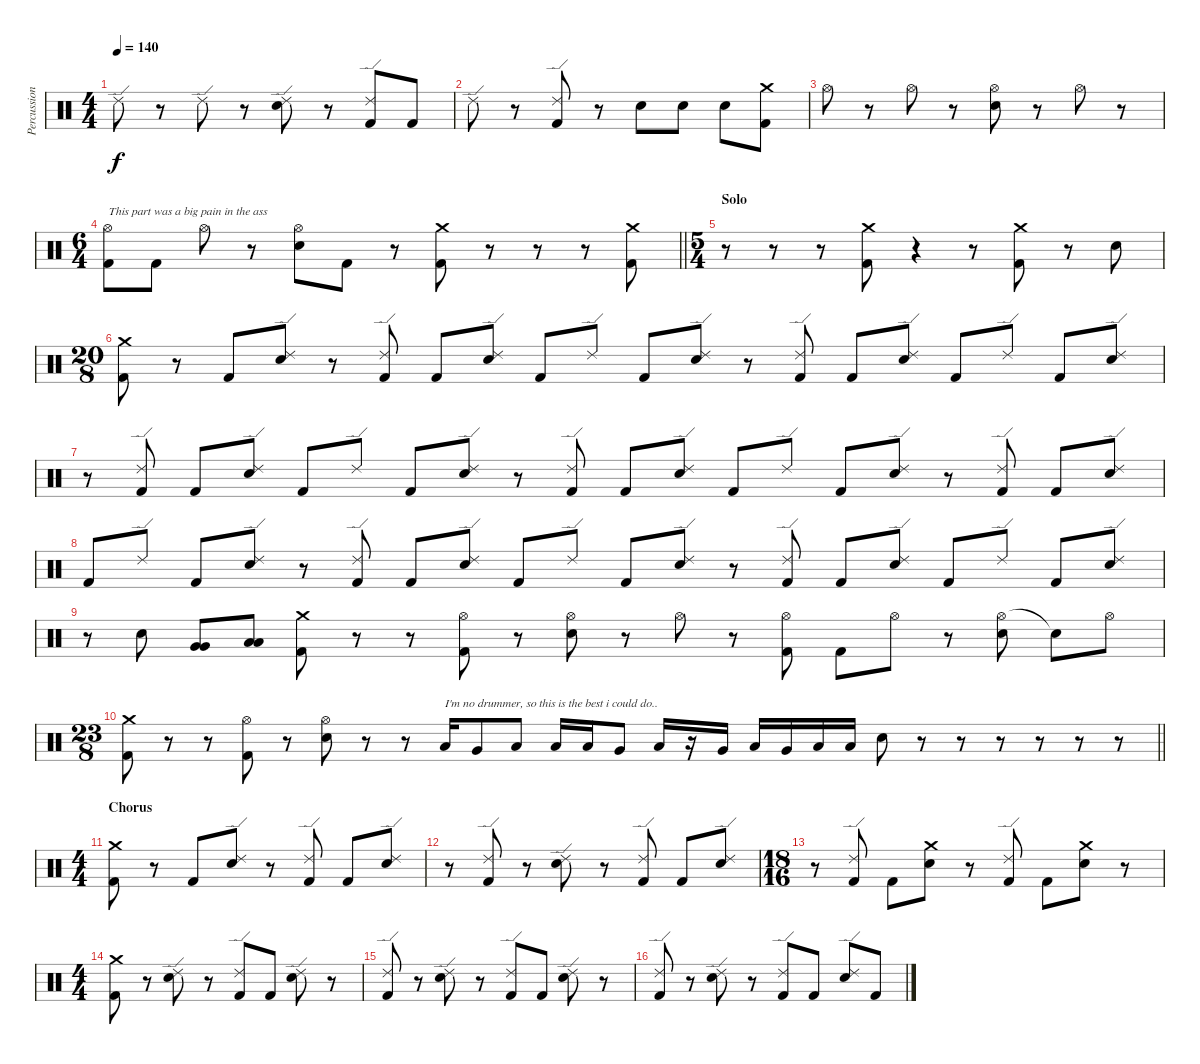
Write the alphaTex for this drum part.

\track ("Percussion" "Percussion") {instrument percussion}
\staff {score}
\articulation defaults
\ts (4 4)
\tempo 140
\clef neutral
\ks c "Ride (edge) 2".8{dy f}
r.8 "Ride (edge) 2".8 r.8 ("Ride (edge) 2" "Electric Snare (hit)").8 r.8 ("Ride (edge) 2" "Kick (hit) 2").8 "Kick (hit) 2".8 |
"Ride (edge) 2".8 r.8 ("Ride (edge) 2" "Kick (hit) 2").8 r.8 "Electric Snare (hit)".8 "Electric Snare (hit)".8 "Electric Snare (hit)".8 ("Crash medium (hit)" "Kick (hit) 2").8 |
"Hi-Hat (open)".8 r.8 "Hi-Hat (open)".8 r.8 ("Hi-Hat (open)" "Electric Snare (hit)").8 r.8 "Hi-Hat (open)".8 r.8 |
\ts (6 4)
\barLineRight lightlight
("Hi-Hat (open)" "Kick (hit) 2").8{txt "This part was a big pain in the ass"} "Kick (hit) 2".8 "Hi-Hat (open)".8 r.8 ("Hi-Hat (open)" "Electric Snare (hit)").8 "Kick (hit) 2".8 r.8 ("Crash medium (hit)" "Kick (hit) 2").8 r.8 r.8 r.8 ("Crash medium (hit)" "Kick (hit) 2").8 |
\ts (5 4)
\section ("" "Solo")
r.8 r.8 r.8 ("Kick (hit) 2" "Crash medium (hit)").8 r.4 r.8 ("Crash medium (hit)" "Kick (hit) 2").8 r.8 "Electric Snare (hit)".8 |
\ts (20 8)
("Crash medium (hit)" "Kick (hit) 2").8 r.8 "Kick (hit) 2".8 ("Ride (edge) 2" "Electric Snare (hit)").8 r.8 ("Ride (edge) 2" "Kick (hit) 2").8 "Kick (hit) 2".8 ("Ride (edge) 2" "Electric Snare (hit)").8 "Kick (hit) 2".8 "Ride (edge) 2".8 "Kick (hit) 2".8 ("Ride (edge) 2" "Electric Snare (hit)").8 r.8 ("Ride (edge) 2" "Kick (hit) 2").8 "Kick (hit) 2".8 ("Ride (edge) 2" "Electric Snare (hit)").8 "Kick (hit) 2".8 "Ride (edge) 2".8 "Kick (hit) 2".8 ("Ride (edge) 2" "Electric Snare (hit)").8 |
r.8 ("Ride (edge) 2" "Kick (hit) 2").8 "Kick (hit) 2".8 ("Ride (edge) 2" "Electric Snare (hit)").8 "Kick (hit) 2".8 "Ride (edge) 2".8 "Kick (hit) 2".8 ("Ride (edge) 2" "Electric Snare (hit)").8 r.8 ("Ride (edge) 2" "Kick (hit) 2").8 "Kick (hit) 2".8 ("Ride (edge) 2" "Electric Snare (hit)").8 "Kick (hit) 2".8 "Ride (edge) 2".8 "Kick (hit) 2".8 ("Ride (edge) 2" "Electric Snare (hit)").8 r.8 ("Ride (edge) 2" "Kick (hit) 2").8 "Kick (hit) 2".8 ("Ride (edge) 2" "Electric Snare (hit)").8 |
"Kick (hit) 2".8 "Ride (edge) 2".8 "Kick (hit) 2".8 ("Ride (edge) 2" "Electric Snare (hit)").8 r.8 ("Ride (edge) 2" "Kick (hit) 2").8 "Kick (hit) 2".8 ("Ride (edge) 2" "Electric Snare (hit)").8 "Kick (hit) 2".8 "Ride (edge) 2".8 "Kick (hit) 2".8 ("Ride (edge) 2" "Electric Snare (hit)").8 r.8 ("Ride (edge) 2" "Kick (hit) 2").8 "Kick (hit) 2".8 ("Ride (edge) 2" "Electric Snare (hit)").8 "Kick (hit) 2".8 "Ride (edge) 2".8 "Kick (hit) 2".8 ("Ride (edge) 2" "Electric Snare (hit)").8 |
r.8 "Electric Snare (hit)".8 ("Very Low Tom (hit)" "Very Low Tom (hit)").8 ("Low Tom (hit)" "Low Tom (hit)").8 ("Crash medium (hit)" "Kick (hit) 2").8 r.8 r.8 ("Hi-Hat (open)" "Kick (hit) 2").8 r.8 ("Hi-Hat (open)" "Electric Snare (hit)").8 r.8 "Hi-Hat (open)".8 r.8 ("Hi-Hat (open)" "Kick (hit) 2").8 "Kick (hit) 2".8 "Hi-Hat (open)".8 r.8 ("Hi-Hat (open)" "Electric Snare (hit)").8 "Snare (hit)"{t}.8 "Hi-Hat (open)".8 |
\ts (23 8)
\barLineRight lightlight
("Crash medium (hit)" "Kick (hit) 2").8 r.8 r.8 ("Hi-Hat (open)" "Kick (hit) 2").8 r.8 ("Hi-Hat (open)" "Electric Snare (hit)").8 r.8 r.8 "Low Tom (hit)".16{txt "I'm no drummer, so this is the best i could do.."} "Very Low Tom (hit)".8 "Low Floor Tom (hit)".8 "Low Floor Tom (hit)".16 "Low Tom (hit)".16 "Very Low Tom (hit)".8 "Low Floor Tom (hit)".16 r.16 "Very Low Tom (hit)".16 "Low Floor Tom (hit)".16 "Very Low Tom (hit)".16 "Low Tom (hit)".16 "Low Tom (hit)".16 "Electric Snare (hit)".8 r.8 r.8 r.8 r.8 r.8 r.8 |
\ts (4 4)
\section ("" "Chorus")
("Crash medium (hit)" "Kick (hit) 2").8 r.8 "Kick (hit) 2".8 ("Ride (edge) 2" "Electric Snare (hit)").8 r.8 ("Ride (edge) 2" "Kick (hit) 2").8 "Kick (hit) 2".8 ("Ride (edge) 2" "Electric Snare (hit)").8 |
r.8 ("Ride (edge) 2" "Kick (hit) 2").8 r.8 ("Ride (edge) 2" "Electric Snare (hit)").8 r.8 ("Ride (edge) 2" "Kick (hit) 2").8 "Kick (hit) 2".8 ("Ride (edge) 2" "Electric Snare (hit)").8 |
\ts (18 16)
r.8 ("Ride (edge) 2" "Kick (hit) 2").8 "Kick (hit) 2".8 ("Crash medium (hit)" "Electric Snare (hit)").8 r.8 ("Ride (edge) 2" "Kick (hit) 2").8 "Kick (hit) 2".8 ("Crash medium (hit)" "Electric Snare (hit)").8 r.8 |
\ts (4 4)
("Crash medium (hit)" "Kick (hit) 2").8 r.8 ("Ride (edge) 2" "Electric Snare (hit)").8 r.8 ("Ride (edge) 2" "Kick (hit) 2").8 "Kick (hit) 2".8 ("Ride (edge) 2" "Electric Snare (hit)").8 r.8 |
("Ride (edge) 2" "Kick (hit) 2").8 r.8 ("Ride (edge) 2" "Electric Snare (hit)").8 r.8 ("Ride (edge) 2" "Kick (hit) 2").8 "Kick (hit) 2".8 ("Ride (edge) 2" "Electric Snare (hit)").8 r.8 |
("Ride (edge) 2" "Kick (hit) 2").8 r.8 ("Ride (edge) 2" "Electric Snare (hit)").8 r.8 ("Ride (edge) 2" "Kick (hit) 2").8 "Kick (hit) 2".8 ("Ride (edge) 2" "Electric Snare (hit)").8 "Kick (hit) 2".8
